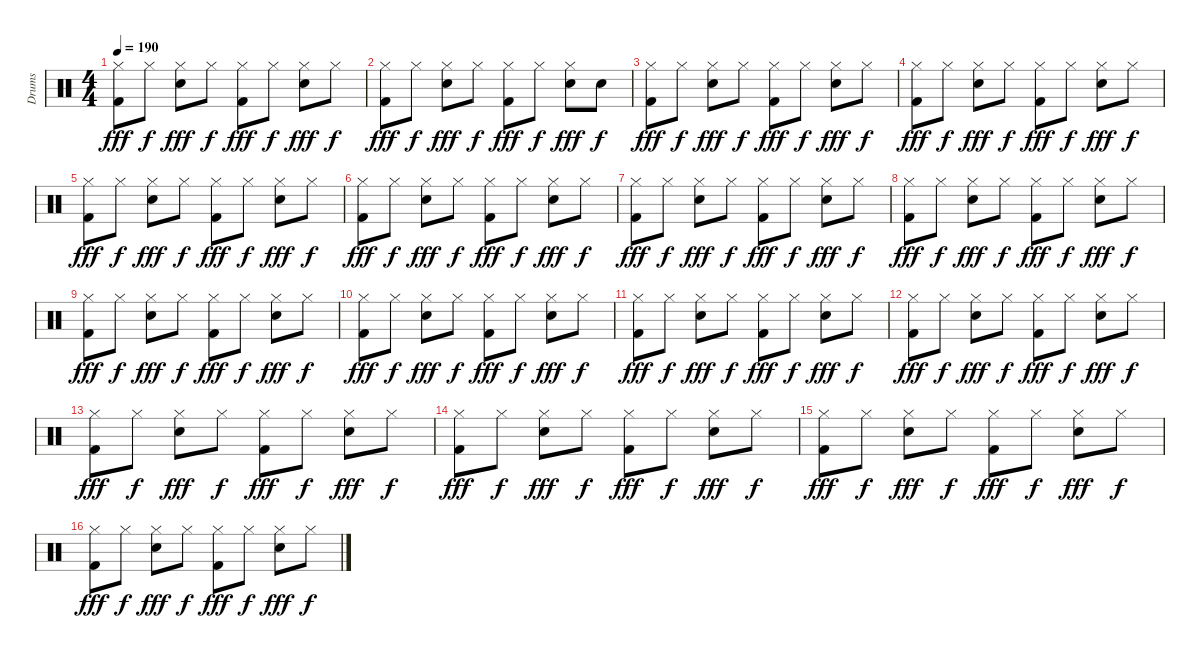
\track ("Drums" "Drums") {instrument percussion}
\staff {score}
\articulation defaults
\ts (4 4)
\tempo 190
\clef neutral
\ks c
("Kick (hit) 2" "Hi-Hat (closed)").8{dy fff} "Hi-Hat (closed)".8{dy f} ("Snare (hit) 2" "Hi-Hat (closed)").8{dy fff} "Hi-Hat (closed)".8{dy f} ("Kick (hit) 2" "Hi-Hat (closed)").8{dy fff} "Hi-Hat (closed)".8{dy f} ("Snare (hit) 2" "Hi-Hat (closed)").8{dy fff} "Hi-Hat (closed)".8{dy f} |
("Kick (hit) 2" "Hi-Hat (closed)").8{dy fff} "Hi-Hat (closed)".8{dy f} ("Snare (hit) 2" "Hi-Hat (closed)").8{dy fff} "Hi-Hat (closed)".8{dy f} ("Kick (hit) 2" "Hi-Hat (closed)").8{dy fff} "Hi-Hat (closed)".8{dy f} ("Snare (hit) 2" "Hi-Hat (closed)").8{dy fff} "Snare (hit) 2".8{dy f} |
("Kick (hit) 2" "Hi-Hat (closed)").8{dy fff} "Hi-Hat (closed)".8{dy f} ("Snare (hit) 2" "Hi-Hat (closed)").8{dy fff} "Hi-Hat (closed)".8{dy f} ("Kick (hit) 2" "Hi-Hat (closed)").8{dy fff} "Hi-Hat (closed)".8{dy f} ("Snare (hit) 2" "Hi-Hat (closed)").8{dy fff} "Hi-Hat (closed)".8{dy f} |
("Kick (hit) 2" "Hi-Hat (closed)").8{dy fff} "Hi-Hat (closed)".8{dy f} ("Snare (hit) 2" "Hi-Hat (closed)").8{dy fff} "Hi-Hat (closed)".8{dy f} ("Kick (hit) 2" "Hi-Hat (closed)").8{dy fff} "Hi-Hat (closed)".8{dy f} ("Snare (hit) 2" "Hi-Hat (closed)").8{dy fff} "Hi-Hat (closed)".8{dy f} |
("Kick (hit) 2" "Hi-Hat (closed)").8{dy fff} "Hi-Hat (closed)".8{dy f} ("Snare (hit) 2" "Hi-Hat (closed)").8{dy fff} "Hi-Hat (closed)".8{dy f} ("Kick (hit) 2" "Hi-Hat (closed)").8{dy fff} "Hi-Hat (closed)".8{dy f} ("Snare (hit) 2" "Hi-Hat (closed)").8{dy fff} "Hi-Hat (closed)".8{dy f} |
("Kick (hit) 2" "Hi-Hat (closed)").8{dy fff} "Hi-Hat (closed)".8{dy f} ("Snare (hit) 2" "Hi-Hat (closed)").8{dy fff} "Hi-Hat (closed)".8{dy f} ("Kick (hit) 2" "Hi-Hat (closed)").8{dy fff} "Hi-Hat (closed)".8{dy f} ("Snare (hit) 2" "Hi-Hat (closed)").8{dy fff} "Hi-Hat (closed)".8{dy f} |
("Kick (hit) 2" "Hi-Hat (closed)").8{dy fff} "Hi-Hat (closed)".8{dy f} ("Snare (hit) 2" "Hi-Hat (closed)").8{dy fff} "Hi-Hat (closed)".8{dy f} ("Kick (hit) 2" "Hi-Hat (closed)").8{dy fff} "Hi-Hat (closed)".8{dy f} ("Snare (hit) 2" "Hi-Hat (closed)").8{dy fff} "Hi-Hat (closed)".8{dy f} |
("Kick (hit) 2" "Hi-Hat (closed)").8{dy fff} "Hi-Hat (closed)".8{dy f} ("Snare (hit) 2" "Hi-Hat (closed)").8{dy fff} "Hi-Hat (closed)".8{dy f} ("Kick (hit) 2" "Hi-Hat (closed)").8{dy fff} "Hi-Hat (closed)".8{dy f} ("Snare (hit) 2" "Hi-Hat (closed)").8{dy fff} "Hi-Hat (closed)".8{dy f} |
("Kick (hit) 2" "Hi-Hat (closed)").8{dy fff} "Hi-Hat (closed)".8{dy f} ("Snare (hit) 2" "Hi-Hat (closed)").8{dy fff} "Hi-Hat (closed)".8{dy f} ("Kick (hit) 2" "Hi-Hat (closed)").8{dy fff} "Hi-Hat (closed)".8{dy f} ("Snare (hit) 2" "Hi-Hat (closed)").8{dy fff} "Hi-Hat (closed)".8{dy f} |
("Kick (hit) 2" "Hi-Hat (closed)").8{dy fff} "Hi-Hat (closed)".8{dy f} ("Snare (hit) 2" "Hi-Hat (closed)").8{dy fff} "Hi-Hat (closed)".8{dy f} ("Kick (hit) 2" "Hi-Hat (closed)").8{dy fff} "Hi-Hat (closed)".8{dy f} ("Snare (hit) 2" "Hi-Hat (closed)").8{dy fff} "Hi-Hat (closed)".8{dy f} |
("Kick (hit) 2" "Hi-Hat (closed)").8{dy fff} "Hi-Hat (closed)".8{dy f} ("Snare (hit) 2" "Hi-Hat (closed)").8{dy fff} "Hi-Hat (closed)".8{dy f} ("Kick (hit) 2" "Hi-Hat (closed)").8{dy fff} "Hi-Hat (closed)".8{dy f} ("Snare (hit) 2" "Hi-Hat (closed)").8{dy fff} "Hi-Hat (closed)".8{dy f} |
("Kick (hit) 2" "Hi-Hat (closed)").8{dy fff} "Hi-Hat (closed)".8{dy f} ("Snare (hit) 2" "Hi-Hat (closed)").8{dy fff} "Hi-Hat (closed)".8{dy f} ("Kick (hit) 2" "Hi-Hat (closed)").8{dy fff} "Hi-Hat (closed)".8{dy f} ("Snare (hit) 2" "Hi-Hat (closed)").8{dy fff} "Hi-Hat (closed)".8{dy f} |
("Kick (hit) 2" "Hi-Hat (closed)").8{dy fff} "Hi-Hat (closed)".8{dy f} ("Snare (hit) 2" "Hi-Hat (closed)").8{dy fff} "Hi-Hat (closed)".8{dy f} ("Kick (hit) 2" "Hi-Hat (closed)").8{dy fff} "Hi-Hat (closed)".8{dy f} ("Snare (hit) 2" "Hi-Hat (closed)").8{dy fff} "Hi-Hat (closed)".8{dy f} |
("Kick (hit) 2" "Hi-Hat (closed)").8{dy fff} "Hi-Hat (closed)".8{dy f} ("Snare (hit) 2" "Hi-Hat (closed)").8{dy fff} "Hi-Hat (closed)".8{dy f} ("Kick (hit) 2" "Hi-Hat (closed)").8{dy fff} "Hi-Hat (closed)".8{dy f} ("Snare (hit) 2" "Hi-Hat (closed)").8{dy fff} "Hi-Hat (closed)".8{dy f} |
("Kick (hit) 2" "Hi-Hat (closed)").8{dy fff} "Hi-Hat (closed)".8{dy f} ("Snare (hit) 2" "Hi-Hat (closed)").8{dy fff} "Hi-Hat (closed)".8{dy f} ("Kick (hit) 2" "Hi-Hat (closed)").8{dy fff} "Hi-Hat (closed)".8{dy f} ("Snare (hit) 2" "Hi-Hat (closed)").8{dy fff} "Hi-Hat (closed)".8{dy f} |
("Kick (hit) 2" "Hi-Hat (closed)").8{dy fff} "Hi-Hat (closed)".8{dy f} ("Snare (hit) 2" "Hi-Hat (closed)").8{dy fff} "Hi-Hat (closed)".8{dy f} ("Kick (hit) 2" "Hi-Hat (closed)").8{dy fff} "Hi-Hat (closed)".8{dy f} ("Snare (hit) 2" "Hi-Hat (closed)").8{dy fff} "Hi-Hat (closed)".8{dy f}
